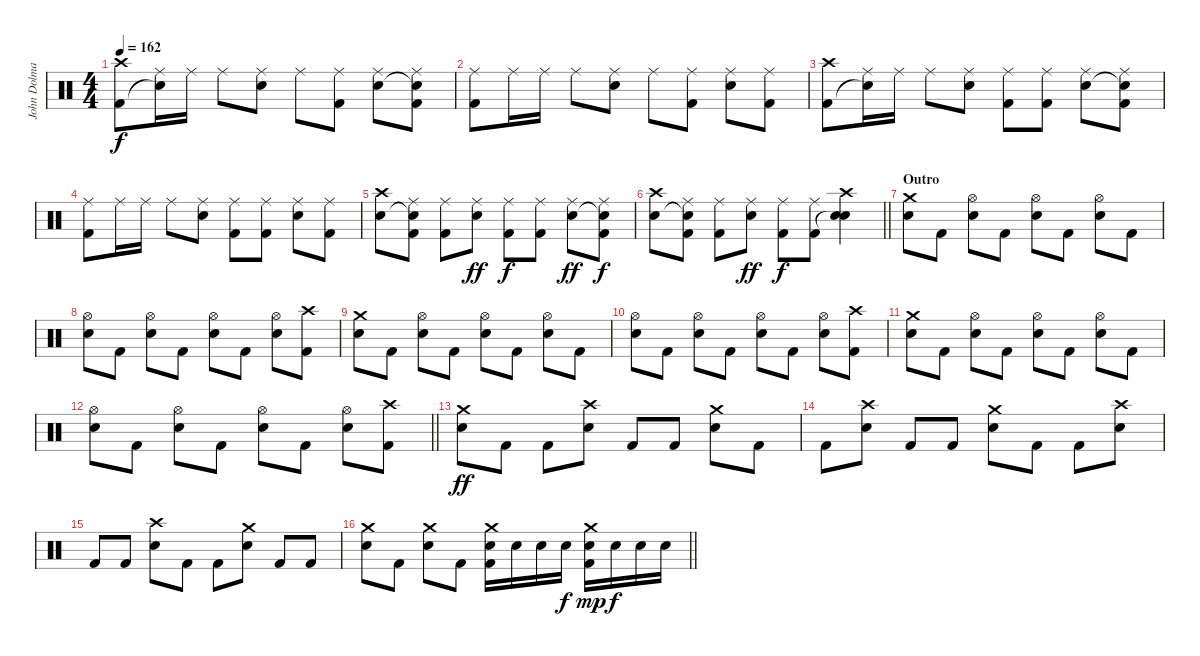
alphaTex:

\track ("John Dolmayan" "John Dolma") {instrument percussion}
\staff {score}
\articulation defaults
\ts (4 4)
\tempo 162
\clef neutral
\ks c
("Crash high (hit)" "Kick (hit) 2").8{dy f} ("Ride (middle)" "Snare (hit)"{t}).16 "Ride (middle)".16 "Ride (middle)".8 ("Ride (middle)" "Electric Snare (hit)").8 "Ride (middle)".8 ("Ride (middle)" "Kick (hit) 2").8 ("Ride (middle)" "Electric Snare (hit)").8 ("Ride (middle)" "Snare (hit)"{t} "Kick (hit) 2").8 |
("Ride (middle)" "Kick (hit) 2").8 "Ride (middle)".16 "Ride (middle)".16 "Ride (middle)".8 ("Ride (middle)" "Electric Snare (hit)").8 "Ride (middle)".8 ("Ride (middle)" "Kick (hit) 2").8 ("Ride (middle)" "Electric Snare (hit)").8 ("Ride (middle)" "Kick (hit) 2").8 |
("Crash high (hit)" "Kick (hit) 2").8 ("Ride (middle)" "Snare (hit)"{t}).16 "Ride (middle)".16 "Ride (middle)".8 ("Ride (middle)" "Electric Snare (hit)").8 ("Ride (middle)" "Kick (hit) 2").8 ("Ride (middle)" "Kick (hit) 2").8 ("Ride (middle)" "Electric Snare (hit)").8 ("Ride (middle)" "Snare (hit)"{t} "Kick (hit) 2").8 |
("Ride (middle)" "Kick (hit) 2").8 "Ride (middle)".16 "Ride (middle)".16 "Ride (middle)".8 ("Ride (middle)" "Electric Snare (hit)").8 ("Ride (middle)" "Kick (hit) 2").8 ("Ride (middle)" "Kick (hit) 2").8 ("Ride (middle)" "Electric Snare (hit)").8 ("Ride (middle)" "Kick (hit) 2").8 |
("Crash high (hit)" "Electric Snare (hit)").8 ("Ride (middle)" "Snare (hit)"{t} "Kick (hit) 2").8 ("Ride (middle)" "Kick (hit) 2").8 ("Ride (middle)" "Electric Snare (hit)").8{dy ff} ("Ride (middle)" "Kick (hit) 2").8{dy f} ("Ride (middle)" "Kick (hit) 2").8 ("Ride (middle)" "Electric Snare (hit)").8{dy ff} ("Ride (middle)" "Snare (hit)"{t} "Kick (hit) 2").8{dy f} |
\barLineRight lightlight
("Crash high (hit)" "Electric Snare (hit)").8 ("Ride (middle)" "Snare (hit)"{t} "Kick (hit) 2").8 ("Ride (middle)" "Kick (hit) 2").8 ("Ride (middle)" "Electric Snare (hit)").8{dy ff} ("Ride (middle)" "Kick (hit) 2").8{dy f} ("Ride (middle)" "Kick (hit) 2").8 ("Crash high (hit)" "Snare (hit)"{t} "Electric Snare (hit)").4 |
\section ("" "Outro")
("Crash medium (hit)" "Electric Snare (hit)").8 "Kick (hit) 2".8 ("Hi-Hat (open)" "Electric Snare (hit)").8 "Kick (hit) 2".8 ("Hi-Hat (open)" "Electric Snare (hit)").8 "Kick (hit) 2".8 ("Hi-Hat (open)" "Electric Snare (hit)").8 "Kick (hit) 2".8 |
("Hi-Hat (open)" "Electric Snare (hit)").8 "Kick (hit) 2".8 ("Hi-Hat (open)" "Electric Snare (hit)").8 "Kick (hit) 2".8 ("Hi-Hat (open)" "Electric Snare (hit)").8 "Kick (hit) 2".8 ("Hi-Hat (open)" "Electric Snare (hit)").8 ("Crash high (hit)" "Kick (hit) 2").8 |
("Crash medium (hit)" "Electric Snare (hit)").8 "Kick (hit) 2".8 ("Hi-Hat (open)" "Electric Snare (hit)").8 "Kick (hit) 2".8 ("Hi-Hat (open)" "Electric Snare (hit)").8 "Kick (hit) 2".8 ("Hi-Hat (open)" "Electric Snare (hit)").8 "Kick (hit) 2".8 |
("Hi-Hat (open)" "Electric Snare (hit)").8 "Kick (hit) 2".8 ("Hi-Hat (open)" "Electric Snare (hit)").8 "Kick (hit) 2".8 ("Hi-Hat (open)" "Electric Snare (hit)").8 "Kick (hit) 2".8 ("Hi-Hat (open)" "Electric Snare (hit)").8 ("Crash high (hit)" "Kick (hit) 2").8 |
("Crash medium (hit)" "Electric Snare (hit)").8 "Kick (hit) 2".8 ("Hi-Hat (open)" "Electric Snare (hit)").8 "Kick (hit) 2".8 ("Hi-Hat (open)" "Electric Snare (hit)").8 "Kick (hit) 2".8 ("Hi-Hat (open)" "Electric Snare (hit)").8 "Kick (hit) 2".8 |
\barLineRight lightlight
("Hi-Hat (open)" "Electric Snare (hit)").8 "Kick (hit) 2".8 ("Hi-Hat (open)" "Electric Snare (hit)").8 "Kick (hit) 2".8 ("Hi-Hat (open)" "Electric Snare (hit)").8 "Kick (hit) 2".8 ("Hi-Hat (open)" "Electric Snare (hit)").8 ("Crash high (hit)" "Kick (hit) 2").8 |
("Crash medium (hit)" "Electric Snare (hit)").8{dy ff} "Kick (hit) 2".8 "Kick (hit) 2".8 ("Crash high (hit)" "Electric Snare (hit)").8 "Kick (hit) 2".8 "Kick (hit) 2".8 ("Crash medium (hit)" "Electric Snare (hit)").8 "Kick (hit) 2".8 |
"Kick (hit) 2".8 ("Crash high (hit)" "Electric Snare (hit)").8 "Kick (hit) 2".8 "Kick (hit) 2".8 ("Crash medium (hit)" "Electric Snare (hit)").8 "Kick (hit) 2".8 "Kick (hit) 2".8 ("Crash high (hit)" "Electric Snare (hit)").8 |
"Kick (hit) 2".8 "Kick (hit) 2".8 ("Crash high (hit)" "Electric Snare (hit)").8 "Kick (hit) 2".8 "Kick (hit) 2".8 ("Crash medium (hit)" "Electric Snare (hit)").8 "Kick (hit) 2".8 "Kick (hit) 2".8 |
\barLineRight lightlight
("Crash medium (hit)" "Electric Snare (hit)").8 "Kick (hit) 2".8 ("Crash medium (hit)" "Electric Snare (hit)").8 "Kick (hit) 2".8 ("Crash medium (hit)" "Electric Snare (hit)" "Kick (hit) 2").16 "Electric Snare (hit)".16 "Electric Snare (hit)".16 "Electric Snare (hit)".16{dy f} ("Crash medium (hit)" "Electric Snare (hit)" "Kick (hit) 2").16{dy mp} "Electric Snare (hit)".16{dy f} "Electric Snare (hit)".16 "Electric Snare (hit)".16
